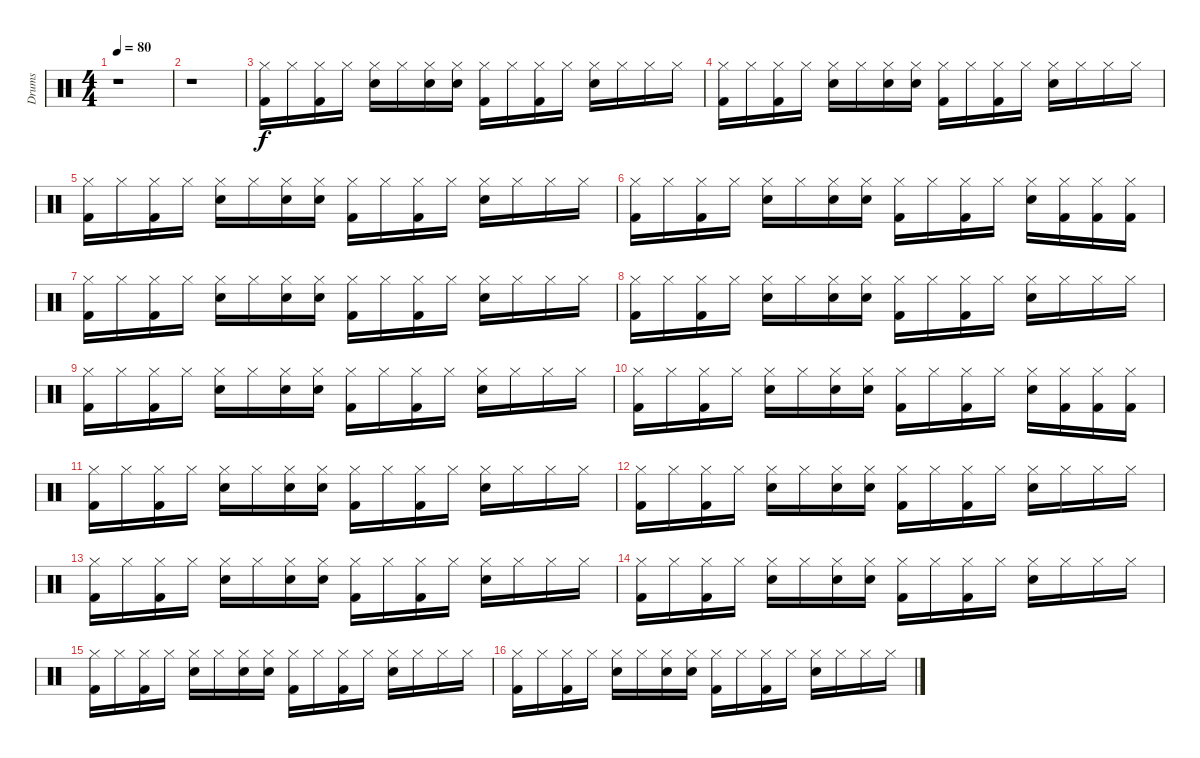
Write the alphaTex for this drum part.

\track ("Drums" "Drums") {instrument percussion}
\staff {score}
\articulation defaults
\ts (4 4)
\tempo 80
\clef neutral
\ks c
r.1{dy f} |
r.1 |
("Hi-Hat (closed)" "Kick (hit) 2").16 "Hi-Hat (closed)".16 ("Hi-Hat (closed)" "Kick (hit) 2").16 "Hi-Hat (closed)".16 ("Hi-Hat (closed)" "Electric Snare (hit)").16 "Hi-Hat (closed)".16 ("Hi-Hat (closed)" "Electric Snare (hit)").16 ("Hi-Hat (closed)" "Electric Snare (hit)").16 ("Hi-Hat (closed)" "Kick (hit) 2").16 "Hi-Hat (closed)".16 ("Hi-Hat (closed)" "Kick (hit) 2").16 "Hi-Hat (closed)".16 ("Hi-Hat (closed)" "Electric Snare (hit)").16 "Hi-Hat (closed)".16 "Hi-Hat (closed)".16 "Hi-Hat (closed)".16 |
("Hi-Hat (closed)" "Kick (hit) 2").16 "Hi-Hat (closed)".16 ("Hi-Hat (closed)" "Kick (hit) 2").16 "Hi-Hat (closed)".16 ("Hi-Hat (closed)" "Electric Snare (hit)").16 "Hi-Hat (closed)".16 ("Hi-Hat (closed)" "Electric Snare (hit)").16 ("Hi-Hat (closed)" "Electric Snare (hit)").16 ("Hi-Hat (closed)" "Kick (hit) 2").16 "Hi-Hat (closed)".16 ("Hi-Hat (closed)" "Kick (hit) 2").16 "Hi-Hat (closed)".16 ("Hi-Hat (closed)" "Electric Snare (hit)").16 "Hi-Hat (closed)".16 "Hi-Hat (closed)".16 "Hi-Hat (closed)".16 |
("Hi-Hat (closed)" "Kick (hit) 2").16 "Hi-Hat (closed)".16 ("Hi-Hat (closed)" "Kick (hit) 2").16 "Hi-Hat (closed)".16 ("Hi-Hat (closed)" "Electric Snare (hit)").16 "Hi-Hat (closed)".16 ("Hi-Hat (closed)" "Electric Snare (hit)").16 ("Hi-Hat (closed)" "Electric Snare (hit)").16 ("Hi-Hat (closed)" "Kick (hit) 2").16 "Hi-Hat (closed)".16 ("Hi-Hat (closed)" "Kick (hit) 2").16 "Hi-Hat (closed)".16 ("Hi-Hat (closed)" "Electric Snare (hit)").16 "Hi-Hat (closed)".16 "Hi-Hat (closed)".16 "Hi-Hat (closed)".16 |
("Hi-Hat (closed)" "Kick (hit) 2").16 "Hi-Hat (closed)".16 ("Hi-Hat (closed)" "Kick (hit) 2").16 "Hi-Hat (closed)".16 ("Hi-Hat (closed)" "Electric Snare (hit)").16 "Hi-Hat (closed)".16 ("Hi-Hat (closed)" "Electric Snare (hit)").16 ("Hi-Hat (closed)" "Electric Snare (hit)").16 ("Hi-Hat (closed)" "Kick (hit) 2").16 "Hi-Hat (closed)".16 ("Hi-Hat (closed)" "Kick (hit) 2").16 "Hi-Hat (closed)".16 ("Hi-Hat (closed)" "Electric Snare (hit)").16 ("Hi-Hat (closed)" "Kick (hit) 2").16 ("Hi-Hat (closed)" "Kick (hit) 2").16 ("Hi-Hat (closed)" "Kick (hit) 2").16 |
("Hi-Hat (closed)" "Kick (hit) 2").16 "Hi-Hat (closed)".16 ("Hi-Hat (closed)" "Kick (hit) 2").16 "Hi-Hat (closed)".16 ("Hi-Hat (closed)" "Electric Snare (hit)").16 "Hi-Hat (closed)".16 ("Hi-Hat (closed)" "Electric Snare (hit)").16 ("Hi-Hat (closed)" "Electric Snare (hit)").16 ("Hi-Hat (closed)" "Kick (hit) 2").16 "Hi-Hat (closed)".16 ("Hi-Hat (closed)" "Kick (hit) 2").16 "Hi-Hat (closed)".16 ("Hi-Hat (closed)" "Electric Snare (hit)").16 "Hi-Hat (closed)".16 "Hi-Hat (closed)".16 "Hi-Hat (closed)".16 |
("Hi-Hat (closed)" "Kick (hit) 2").16 "Hi-Hat (closed)".16 ("Hi-Hat (closed)" "Kick (hit) 2").16 "Hi-Hat (closed)".16 ("Hi-Hat (closed)" "Electric Snare (hit)").16 "Hi-Hat (closed)".16 ("Hi-Hat (closed)" "Electric Snare (hit)").16 ("Hi-Hat (closed)" "Electric Snare (hit)").16 ("Hi-Hat (closed)" "Kick (hit) 2").16 "Hi-Hat (closed)".16 ("Hi-Hat (closed)" "Kick (hit) 2").16 "Hi-Hat (closed)".16 ("Hi-Hat (closed)" "Electric Snare (hit)").16 "Hi-Hat (closed)".16 "Hi-Hat (closed)".16 "Hi-Hat (closed)".16 |
("Hi-Hat (closed)" "Kick (hit) 2").16 "Hi-Hat (closed)".16 ("Hi-Hat (closed)" "Kick (hit) 2").16 "Hi-Hat (closed)".16 ("Hi-Hat (closed)" "Electric Snare (hit)").16 "Hi-Hat (closed)".16 ("Hi-Hat (closed)" "Electric Snare (hit)").16 ("Hi-Hat (closed)" "Electric Snare (hit)").16 ("Hi-Hat (closed)" "Kick (hit) 2").16 "Hi-Hat (closed)".16 ("Hi-Hat (closed)" "Kick (hit) 2").16 "Hi-Hat (closed)".16 ("Hi-Hat (closed)" "Electric Snare (hit)").16 "Hi-Hat (closed)".16 "Hi-Hat (closed)".16 "Hi-Hat (closed)".16 |
("Hi-Hat (closed)" "Kick (hit) 2").16 "Hi-Hat (closed)".16 ("Hi-Hat (closed)" "Kick (hit) 2").16 "Hi-Hat (closed)".16 ("Hi-Hat (closed)" "Electric Snare (hit)").16 "Hi-Hat (closed)".16 ("Hi-Hat (closed)" "Electric Snare (hit)").16 ("Hi-Hat (closed)" "Electric Snare (hit)").16 ("Hi-Hat (closed)" "Kick (hit) 2").16 "Hi-Hat (closed)".16 ("Hi-Hat (closed)" "Kick (hit) 2").16 "Hi-Hat (closed)".16 ("Hi-Hat (closed)" "Electric Snare (hit)").16 ("Hi-Hat (closed)" "Kick (hit) 2").16 ("Hi-Hat (closed)" "Kick (hit) 2").16 ("Hi-Hat (closed)" "Kick (hit) 2").16 |
("Hi-Hat (closed)" "Kick (hit) 2").16 "Hi-Hat (closed)".16 ("Hi-Hat (closed)" "Kick (hit) 2").16 "Hi-Hat (closed)".16 ("Hi-Hat (closed)" "Electric Snare (hit)").16 "Hi-Hat (closed)".16 ("Hi-Hat (closed)" "Electric Snare (hit)").16 ("Hi-Hat (closed)" "Electric Snare (hit)").16 ("Hi-Hat (closed)" "Kick (hit) 2").16 "Hi-Hat (closed)".16 ("Hi-Hat (closed)" "Kick (hit) 2").16 "Hi-Hat (closed)".16 ("Hi-Hat (closed)" "Electric Snare (hit)").16 "Hi-Hat (closed)".16 "Hi-Hat (closed)".16 "Hi-Hat (closed)".16 |
("Hi-Hat (closed)" "Kick (hit) 2").16 "Hi-Hat (closed)".16 ("Hi-Hat (closed)" "Kick (hit) 2").16 "Hi-Hat (closed)".16 ("Hi-Hat (closed)" "Electric Snare (hit)").16 "Hi-Hat (closed)".16 ("Hi-Hat (closed)" "Electric Snare (hit)").16 ("Hi-Hat (closed)" "Electric Snare (hit)").16 ("Hi-Hat (closed)" "Kick (hit) 2").16 "Hi-Hat (closed)".16 ("Hi-Hat (closed)" "Kick (hit) 2").16 "Hi-Hat (closed)".16 ("Hi-Hat (closed)" "Electric Snare (hit)").16 "Hi-Hat (closed)".16 "Hi-Hat (closed)".16 "Hi-Hat (closed)".16 |
("Hi-Hat (closed)" "Kick (hit) 2").16 "Hi-Hat (closed)".16 ("Hi-Hat (closed)" "Kick (hit) 2").16 "Hi-Hat (closed)".16 ("Hi-Hat (closed)" "Electric Snare (hit)").16 "Hi-Hat (closed)".16 ("Hi-Hat (closed)" "Electric Snare (hit)").16 ("Hi-Hat (closed)" "Electric Snare (hit)").16 ("Hi-Hat (closed)" "Kick (hit) 2").16 "Hi-Hat (closed)".16 ("Hi-Hat (closed)" "Kick (hit) 2").16 "Hi-Hat (closed)".16 ("Hi-Hat (closed)" "Electric Snare (hit)").16 "Hi-Hat (closed)".16 "Hi-Hat (closed)".16 "Hi-Hat (closed)".16 |
("Hi-Hat (closed)" "Kick (hit) 2").16 "Hi-Hat (closed)".16 ("Hi-Hat (closed)" "Kick (hit) 2").16 "Hi-Hat (closed)".16 ("Hi-Hat (closed)" "Electric Snare (hit)").16 "Hi-Hat (closed)".16 ("Hi-Hat (closed)" "Electric Snare (hit)").16 ("Hi-Hat (closed)" "Electric Snare (hit)").16 ("Hi-Hat (closed)" "Kick (hit) 2").16 "Hi-Hat (closed)".16 ("Hi-Hat (closed)" "Kick (hit) 2").16 "Hi-Hat (closed)".16 ("Hi-Hat (closed)" "Electric Snare (hit)").16 "Hi-Hat (closed)".16 "Hi-Hat (closed)".16 "Hi-Hat (closed)".16 |
("Hi-Hat (closed)" "Kick (hit) 2").16 "Hi-Hat (closed)".16 ("Hi-Hat (closed)" "Kick (hit) 2").16 "Hi-Hat (closed)".16 ("Hi-Hat (closed)" "Electric Snare (hit)").16 "Hi-Hat (closed)".16 ("Hi-Hat (closed)" "Electric Snare (hit)").16 ("Hi-Hat (closed)" "Electric Snare (hit)").16 ("Hi-Hat (closed)" "Kick (hit) 2").16 "Hi-Hat (closed)".16 ("Hi-Hat (closed)" "Kick (hit) 2").16 "Hi-Hat (closed)".16 ("Hi-Hat (closed)" "Electric Snare (hit)").16 "Hi-Hat (closed)".16 "Hi-Hat (closed)".16 "Hi-Hat (closed)".16 |
("Hi-Hat (closed)" "Kick (hit) 2").16 "Hi-Hat (closed)".16 ("Hi-Hat (closed)" "Kick (hit) 2").16 "Hi-Hat (closed)".16 ("Hi-Hat (closed)" "Electric Snare (hit)").16 "Hi-Hat (closed)".16 ("Hi-Hat (closed)" "Electric Snare (hit)").16 ("Hi-Hat (closed)" "Electric Snare (hit)").16 ("Hi-Hat (closed)" "Kick (hit) 2").16 "Hi-Hat (closed)".16 ("Hi-Hat (closed)" "Kick (hit) 2").16 "Hi-Hat (closed)".16 ("Hi-Hat (closed)" "Electric Snare (hit)").16 "Hi-Hat (closed)".16 "Hi-Hat (closed)".16 "Hi-Hat (closed)".16
